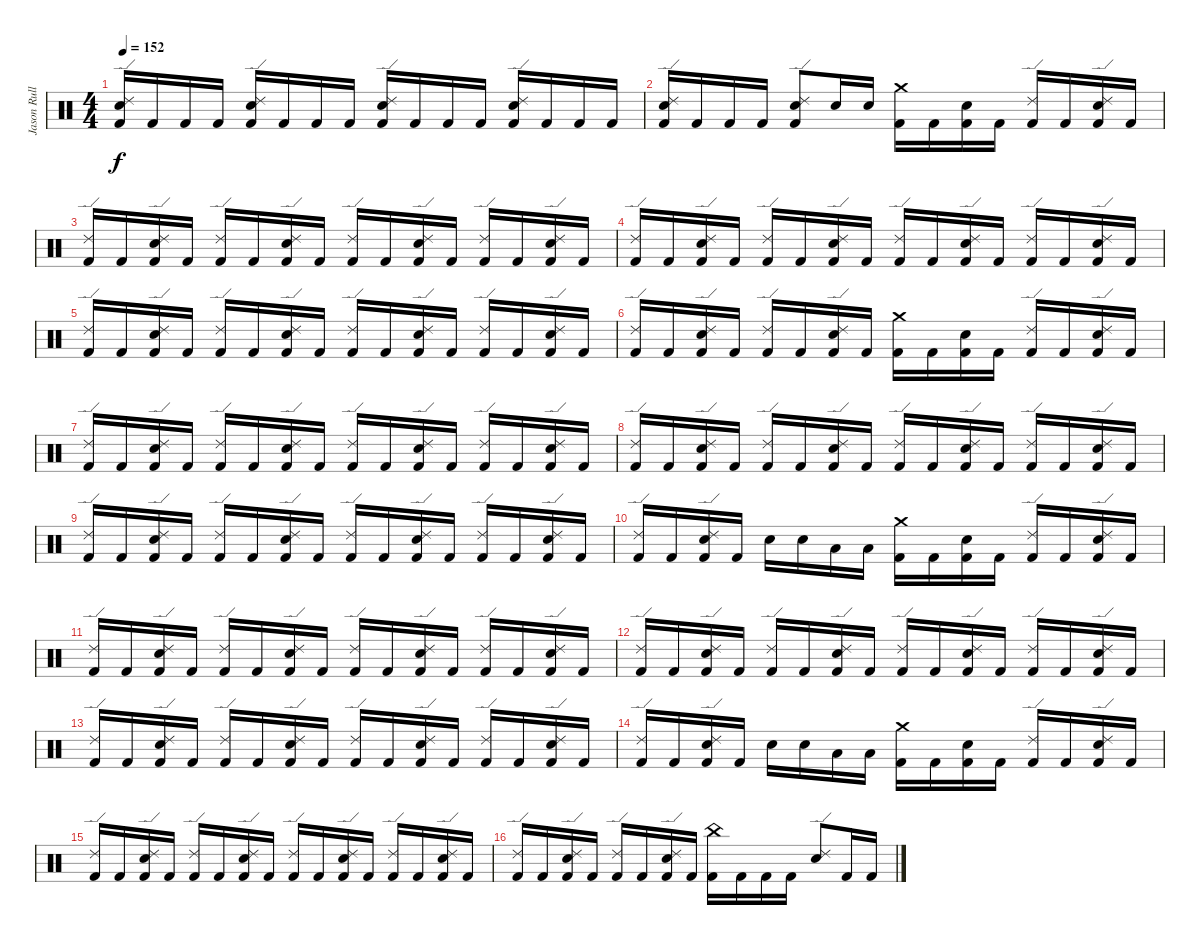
\track ("Jason Rullo" "Jason Rull") {instrument percussion}
\staff {score}
\articulation defaults
\ts (4 4)
\tempo 152
\clef neutral
\ks c
("Ride (edge) 2" "Electric Snare (hit)" "Kick (hit) 2").16{dy f} "Kick (hit) 2".16 "Kick (hit) 2".16 "Kick (hit) 2".16 ("Ride (edge) 2" "Electric Snare (hit)" "Kick (hit) 2").16 "Kick (hit) 2".16 "Kick (hit) 2".16 "Kick (hit) 2".16 ("Ride (edge) 2" "Electric Snare (hit)" "Kick (hit) 2").16 "Kick (hit) 2".16 "Kick (hit) 2".16 "Kick (hit) 2".16 ("Ride (edge) 2" "Electric Snare (hit)" "Kick (hit) 2").16 "Kick (hit) 2".16 "Kick (hit) 2".16 "Kick (hit) 2".16 |
("Ride (edge) 2" "Electric Snare (hit)" "Kick (hit) 2").16 "Kick (hit) 2".16 "Kick (hit) 2".16 "Kick (hit) 2".16 ("Ride (edge) 2" "Electric Snare (hit)" "Kick (hit) 2").8 "Electric Snare (hit)".16 "Electric Snare (hit)".16 ("Crash medium (hit)" "Kick (hit) 2").16 "Kick (hit) 2".16 ("Electric Snare (hit)" "Kick (hit) 2").16 "Kick (hit) 2".16 ("Ride (edge) 2" "Kick (hit) 2").16 "Kick (hit) 2".16 ("Electric Snare (hit)" "Ride (edge) 2" "Kick (hit) 2").16 "Kick (hit) 2".16 |
("Ride (edge) 2" "Kick (hit) 2").16 "Kick (hit) 2".16 ("Electric Snare (hit)" "Ride (edge) 2" "Kick (hit) 2").16 "Kick (hit) 2".16 ("Ride (edge) 2" "Kick (hit) 2").16 "Kick (hit) 2".16 ("Electric Snare (hit)" "Ride (edge) 2" "Kick (hit) 2").16 "Kick (hit) 2".16 ("Ride (edge) 2" "Kick (hit) 2").16 "Kick (hit) 2".16 ("Electric Snare (hit)" "Ride (edge) 2" "Kick (hit) 2").16 "Kick (hit) 2".16 ("Ride (edge) 2" "Kick (hit) 2").16 "Kick (hit) 2".16 ("Electric Snare (hit)" "Ride (edge) 2" "Kick (hit) 2").16 "Kick (hit) 2".16 |
("Ride (edge) 2" "Kick (hit) 2").16 "Kick (hit) 2".16 ("Electric Snare (hit)" "Ride (edge) 2" "Kick (hit) 2").16 "Kick (hit) 2".16 ("Ride (edge) 2" "Kick (hit) 2").16 "Kick (hit) 2".16 ("Electric Snare (hit)" "Ride (edge) 2" "Kick (hit) 2").16 "Kick (hit) 2".16 ("Ride (edge) 2" "Kick (hit) 2").16 "Kick (hit) 2".16 ("Electric Snare (hit)" "Ride (edge) 2" "Kick (hit) 2").16 "Kick (hit) 2".16 ("Ride (edge) 2" "Kick (hit) 2").16 "Kick (hit) 2".16 ("Electric Snare (hit)" "Ride (edge) 2" "Kick (hit) 2").16 "Kick (hit) 2".16 |
("Ride (edge) 2" "Kick (hit) 2").16 "Kick (hit) 2".16 ("Electric Snare (hit)" "Ride (edge) 2" "Kick (hit) 2").16 "Kick (hit) 2".16 ("Ride (edge) 2" "Kick (hit) 2").16 "Kick (hit) 2".16 ("Electric Snare (hit)" "Ride (edge) 2" "Kick (hit) 2").16 "Kick (hit) 2".16 ("Ride (edge) 2" "Kick (hit) 2").16 "Kick (hit) 2".16 ("Electric Snare (hit)" "Ride (edge) 2" "Kick (hit) 2").16 "Kick (hit) 2".16 ("Ride (edge) 2" "Kick (hit) 2").16 "Kick (hit) 2".16 ("Electric Snare (hit)" "Ride (edge) 2" "Kick (hit) 2").16 "Kick (hit) 2".16 |
("Ride (edge) 2" "Kick (hit) 2").16 "Kick (hit) 2".16 ("Electric Snare (hit)" "Ride (edge) 2" "Kick (hit) 2").16 "Kick (hit) 2".16 ("Ride (edge) 2" "Kick (hit) 2").16 "Kick (hit) 2".16 ("Electric Snare (hit)" "Ride (edge) 2" "Kick (hit) 2").16 "Kick (hit) 2".16 ("Crash medium (hit)" "Kick (hit) 2").16 "Kick (hit) 2".16 ("Electric Snare (hit)" "Kick (hit) 2").16 "Kick (hit) 2".16 ("Ride (edge) 2" "Kick (hit) 2").16 "Kick (hit) 2".16 ("Electric Snare (hit)" "Ride (edge) 2" "Kick (hit) 2").16 "Kick (hit) 2".16 |
("Ride (edge) 2" "Kick (hit) 2").16 "Kick (hit) 2".16 ("Electric Snare (hit)" "Ride (edge) 2" "Kick (hit) 2").16 "Kick (hit) 2".16 ("Ride (edge) 2" "Kick (hit) 2").16 "Kick (hit) 2".16 ("Electric Snare (hit)" "Ride (edge) 2" "Kick (hit) 2").16 "Kick (hit) 2".16 ("Ride (edge) 2" "Kick (hit) 2").16 "Kick (hit) 2".16 ("Electric Snare (hit)" "Ride (edge) 2" "Kick (hit) 2").16 "Kick (hit) 2".16 ("Ride (edge) 2" "Kick (hit) 2").16 "Kick (hit) 2".16 ("Electric Snare (hit)" "Ride (edge) 2" "Kick (hit) 2").16 "Kick (hit) 2".16 |
("Ride (edge) 2" "Kick (hit) 2").16 "Kick (hit) 2".16 ("Electric Snare (hit)" "Ride (edge) 2" "Kick (hit) 2").16 "Kick (hit) 2".16 ("Ride (edge) 2" "Kick (hit) 2").16 "Kick (hit) 2".16 ("Electric Snare (hit)" "Ride (edge) 2" "Kick (hit) 2").16 "Kick (hit) 2".16 ("Ride (edge) 2" "Kick (hit) 2").16 "Kick (hit) 2".16 ("Electric Snare (hit)" "Ride (edge) 2" "Kick (hit) 2").16 "Kick (hit) 2".16 ("Ride (edge) 2" "Kick (hit) 2").16 "Kick (hit) 2".16 ("Electric Snare (hit)" "Ride (edge) 2" "Kick (hit) 2").16 "Kick (hit) 2".16 |
("Ride (edge) 2" "Kick (hit) 2").16 "Kick (hit) 2".16 ("Electric Snare (hit)" "Ride (edge) 2" "Kick (hit) 2").16 "Kick (hit) 2".16 ("Ride (edge) 2" "Kick (hit) 2").16 "Kick (hit) 2".16 ("Electric Snare (hit)" "Ride (edge) 2" "Kick (hit) 2").16 "Kick (hit) 2".16 ("Ride (edge) 2" "Kick (hit) 2").16 "Kick (hit) 2".16 ("Electric Snare (hit)" "Ride (edge) 2" "Kick (hit) 2").16 "Kick (hit) 2".16 ("Ride (edge) 2" "Kick (hit) 2").16 "Kick (hit) 2".16 ("Electric Snare (hit)" "Ride (edge) 2" "Kick (hit) 2").16 "Kick (hit) 2".16 |
("Ride (edge) 2" "Kick (hit) 2").16 "Kick (hit) 2".16 ("Electric Snare (hit)" "Ride (edge) 2" "Kick (hit) 2").16 "Kick (hit) 2".16 "Electric Snare (hit)".16 "Electric Snare (hit)".16 "Low Tom (hit)".16 "Low Tom (hit)".16 ("Crash medium (hit)" "Kick (hit) 2").16 "Kick (hit) 2".16 ("Electric Snare (hit)" "Kick (hit) 2").16 "Kick (hit) 2".16 ("Ride (edge) 2" "Kick (hit) 2").16 "Kick (hit) 2".16 ("Electric Snare (hit)" "Ride (edge) 2" "Kick (hit) 2").16 "Kick (hit) 2".16 |
("Ride (edge) 2" "Kick (hit) 2").16 "Kick (hit) 2".16 ("Electric Snare (hit)" "Ride (edge) 2" "Kick (hit) 2").16 "Kick (hit) 2".16 ("Ride (edge) 2" "Kick (hit) 2").16 "Kick (hit) 2".16 ("Electric Snare (hit)" "Ride (edge) 2" "Kick (hit) 2").16 "Kick (hit) 2".16 ("Ride (edge) 2" "Kick (hit) 2").16 "Kick (hit) 2".16 ("Electric Snare (hit)" "Ride (edge) 2" "Kick (hit) 2").16 "Kick (hit) 2".16 ("Ride (edge) 2" "Kick (hit) 2").16 "Kick (hit) 2".16 ("Electric Snare (hit)" "Ride (edge) 2" "Kick (hit) 2").16 "Kick (hit) 2".16 |
("Ride (edge) 2" "Kick (hit) 2").16 "Kick (hit) 2".16 ("Electric Snare (hit)" "Ride (edge) 2" "Kick (hit) 2").16 "Kick (hit) 2".16 ("Ride (edge) 2" "Kick (hit) 2").16 "Kick (hit) 2".16 ("Electric Snare (hit)" "Ride (edge) 2" "Kick (hit) 2").16 "Kick (hit) 2".16 ("Ride (edge) 2" "Kick (hit) 2").16 "Kick (hit) 2".16 ("Electric Snare (hit)" "Ride (edge) 2" "Kick (hit) 2").16 "Kick (hit) 2".16 ("Ride (edge) 2" "Kick (hit) 2").16 "Kick (hit) 2".16 ("Electric Snare (hit)" "Ride (edge) 2" "Kick (hit) 2").16 "Kick (hit) 2".16 |
("Ride (edge) 2" "Kick (hit) 2").16 "Kick (hit) 2".16 ("Electric Snare (hit)" "Ride (edge) 2" "Kick (hit) 2").16 "Kick (hit) 2".16 ("Ride (edge) 2" "Kick (hit) 2").16 "Kick (hit) 2".16 ("Electric Snare (hit)" "Ride (edge) 2" "Kick (hit) 2").16 "Kick (hit) 2".16 ("Ride (edge) 2" "Kick (hit) 2").16 "Kick (hit) 2".16 ("Electric Snare (hit)" "Ride (edge) 2" "Kick (hit) 2").16 "Kick (hit) 2".16 ("Ride (edge) 2" "Kick (hit) 2").16 "Kick (hit) 2".16 ("Electric Snare (hit)" "Ride (edge) 2" "Kick (hit) 2").16 "Kick (hit) 2".16 |
("Ride (edge) 2" "Kick (hit) 2").16 "Kick (hit) 2".16 ("Electric Snare (hit)" "Ride (edge) 2" "Kick (hit) 2").16 "Kick (hit) 2".16 "Electric Snare (hit)".16 "Electric Snare (hit)".16 "Low Tom (hit)".16 "Low Tom (hit)".16 ("Crash medium (hit)" "Kick (hit) 2").16 "Kick (hit) 2".16 ("Electric Snare (hit)" "Kick (hit) 2").16 "Kick (hit) 2".16 ("Ride (edge) 2" "Kick (hit) 2").16 "Kick (hit) 2".16 ("Electric Snare (hit)" "Ride (edge) 2" "Kick (hit) 2").16 "Kick (hit) 2".16 |
("Ride (edge) 2" "Kick (hit) 2").16 "Kick (hit) 2".16 ("Electric Snare (hit)" "Ride (edge) 2" "Kick (hit) 2").16 "Kick (hit) 2".16 ("Ride (edge) 2" "Kick (hit) 2").16 "Kick (hit) 2".16 ("Electric Snare (hit)" "Ride (edge) 2" "Kick (hit) 2").16 "Kick (hit) 2".16 ("Ride (edge) 2" "Kick (hit) 2").16 "Kick (hit) 2".16 ("Electric Snare (hit)" "Ride (edge) 2" "Kick (hit) 2").16 "Kick (hit) 2".16 ("Ride (edge) 2" "Kick (hit) 2").16 "Kick (hit) 2".16 ("Electric Snare (hit)" "Ride (edge) 2" "Kick (hit) 2").16 "Kick (hit) 2".16 |
("Ride (edge) 2" "Kick (hit) 2").16 "Kick (hit) 2".16 ("Electric Snare (hit)" "Ride (edge) 2" "Kick (hit) 2").16 "Kick (hit) 2".16 ("Ride (edge) 2" "Kick (hit) 2").16 "Kick (hit) 2".16 ("Electric Snare (hit)" "Ride (edge) 2" "Kick (hit) 2").16 "Kick (hit) 2".16 ("China (hit)" "Kick (hit) 2").16 "Kick (hit) 2".16 "Kick (hit) 2".16 "Kick (hit) 2".16 ("Ride (edge) 2" "Electric Snare (hit)").8 "Kick (hit) 2".16 "Kick (hit) 2".16
